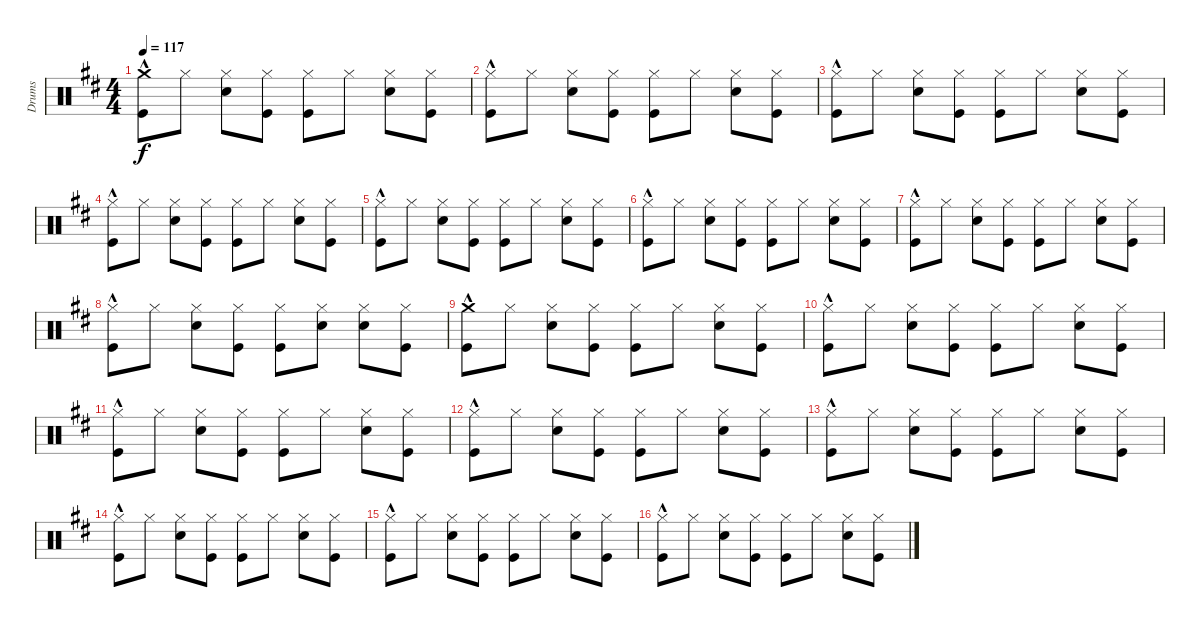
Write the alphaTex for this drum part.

\track ("Drums" "Drums") {instrument percussion}
\staff {score}
\articulation defaults
\ts (4 4)
\tempo 117
\clef neutral
\ks d
("Crash medium (hit)"{hac} "Kick (hit)").8{dy f} "Hi-Hat (closed)".8 ("Hi-Hat (closed)" "Snare (hit) 2").8 ("Hi-Hat (closed)" "Kick (hit)").8 ("Hi-Hat (closed)" "Kick (hit)").8 "Hi-Hat (closed)".8 ("Hi-Hat (closed)" "Snare (hit) 2").8 ("Hi-Hat (closed)" "Kick (hit)").8 |
("Hi-Hat (closed)"{hac} "Kick (hit)").8 "Hi-Hat (closed)".8 ("Hi-Hat (closed)" "Snare (hit) 2").8 ("Hi-Hat (closed)" "Kick (hit)").8 ("Hi-Hat (closed)" "Kick (hit)").8 "Hi-Hat (closed)".8 ("Hi-Hat (closed)" "Snare (hit) 2").8 ("Hi-Hat (closed)" "Kick (hit)").8 |
("Hi-Hat (closed)"{hac} "Kick (hit)").8 "Hi-Hat (closed)".8 ("Hi-Hat (closed)" "Snare (hit) 2").8 ("Hi-Hat (closed)" "Kick (hit)").8 ("Hi-Hat (closed)" "Kick (hit)").8 "Hi-Hat (closed)".8 ("Hi-Hat (closed)" "Snare (hit) 2").8 ("Hi-Hat (closed)" "Kick (hit)").8 |
("Hi-Hat (closed)"{hac} "Kick (hit)").8 "Hi-Hat (closed)".8 ("Hi-Hat (closed)" "Snare (hit) 2").8 ("Hi-Hat (closed)" "Kick (hit)").8 ("Hi-Hat (closed)" "Kick (hit)").8 "Hi-Hat (closed)".8 ("Hi-Hat (closed)" "Snare (hit) 2").8 ("Hi-Hat (closed)" "Kick (hit)").8 |
("Hi-Hat (closed)"{hac} "Kick (hit)").8 "Hi-Hat (closed)".8 ("Hi-Hat (closed)" "Snare (hit) 2").8 ("Hi-Hat (closed)" "Kick (hit)").8 ("Hi-Hat (closed)" "Kick (hit)").8 "Hi-Hat (closed)".8 ("Hi-Hat (closed)" "Snare (hit) 2").8 ("Hi-Hat (closed)" "Kick (hit)").8 |
("Hi-Hat (closed)"{hac} "Kick (hit)").8 "Hi-Hat (closed)".8 ("Hi-Hat (closed)" "Snare (hit) 2").8 ("Hi-Hat (closed)" "Kick (hit)").8 ("Hi-Hat (closed)" "Kick (hit)").8 "Hi-Hat (closed)".8 ("Hi-Hat (closed)" "Snare (hit) 2").8 ("Hi-Hat (closed)" "Kick (hit)").8 |
("Hi-Hat (closed)"{hac} "Kick (hit)").8 "Hi-Hat (closed)".8 ("Hi-Hat (closed)" "Snare (hit) 2").8 ("Hi-Hat (closed)" "Kick (hit)").8 ("Hi-Hat (closed)" "Kick (hit)").8 "Hi-Hat (closed)".8 ("Hi-Hat (closed)" "Snare (hit) 2").8 ("Hi-Hat (closed)" "Kick (hit)").8 |
("Hi-Hat (closed)"{hac} "Kick (hit)").8 "Hi-Hat (closed)".8 ("Hi-Hat (closed)" "Snare (hit) 2").8 ("Hi-Hat (closed)" "Kick (hit)").8 ("Hi-Hat (closed)" "Kick (hit)").8 ("Hi-Hat (closed)" "Snare (hit) 2").8 ("Hi-Hat (closed)" "Snare (hit) 2").8 ("Hi-Hat (closed)" "Kick (hit)").8 |
("Crash medium (hit)"{hac} "Kick (hit)").8 "Hi-Hat (closed)".8 ("Hi-Hat (closed)" "Snare (hit) 2").8 ("Hi-Hat (closed)" "Kick (hit)").8 ("Hi-Hat (closed)" "Kick (hit)").8 "Hi-Hat (closed)".8 ("Hi-Hat (closed)" "Snare (hit) 2").8 ("Hi-Hat (closed)" "Kick (hit)").8 |
("Hi-Hat (closed)"{hac} "Kick (hit)").8 "Hi-Hat (closed)".8 ("Hi-Hat (closed)" "Snare (hit) 2").8 ("Hi-Hat (closed)" "Kick (hit)").8 ("Hi-Hat (closed)" "Kick (hit)").8 "Hi-Hat (closed)".8 ("Hi-Hat (closed)" "Snare (hit) 2").8 ("Hi-Hat (closed)" "Kick (hit)").8 |
("Hi-Hat (closed)"{hac} "Kick (hit)").8 "Hi-Hat (closed)".8 ("Hi-Hat (closed)" "Snare (hit) 2").8 ("Hi-Hat (closed)" "Kick (hit)").8 ("Hi-Hat (closed)" "Kick (hit)").8 "Hi-Hat (closed)".8 ("Hi-Hat (closed)" "Snare (hit) 2").8 ("Hi-Hat (closed)" "Kick (hit)").8 |
("Hi-Hat (closed)"{hac} "Kick (hit)").8 "Hi-Hat (closed)".8 ("Hi-Hat (closed)" "Snare (hit) 2").8 ("Hi-Hat (closed)" "Kick (hit)").8 ("Hi-Hat (closed)" "Kick (hit)").8 "Hi-Hat (closed)".8 ("Hi-Hat (closed)" "Snare (hit) 2").8 ("Hi-Hat (closed)" "Kick (hit)").8 |
("Hi-Hat (closed)"{hac} "Kick (hit)").8 "Hi-Hat (closed)".8 ("Hi-Hat (closed)" "Snare (hit) 2").8 ("Hi-Hat (closed)" "Kick (hit)").8 ("Hi-Hat (closed)" "Kick (hit)").8 "Hi-Hat (closed)".8 ("Hi-Hat (closed)" "Snare (hit) 2").8 ("Hi-Hat (closed)" "Kick (hit)").8 |
("Hi-Hat (closed)"{hac} "Kick (hit)").8 "Hi-Hat (closed)".8 ("Hi-Hat (closed)" "Snare (hit) 2").8 ("Hi-Hat (closed)" "Kick (hit)").8 ("Hi-Hat (closed)" "Kick (hit)").8 "Hi-Hat (closed)".8 ("Hi-Hat (closed)" "Snare (hit) 2").8 ("Hi-Hat (closed)" "Kick (hit)").8 |
("Hi-Hat (closed)"{hac} "Kick (hit)").8 "Hi-Hat (closed)".8 ("Hi-Hat (closed)" "Snare (hit) 2").8 ("Hi-Hat (closed)" "Kick (hit)").8 ("Hi-Hat (closed)" "Kick (hit)").8 "Hi-Hat (closed)".8 ("Hi-Hat (closed)" "Snare (hit) 2").8 ("Hi-Hat (closed)" "Kick (hit)").8 |
("Hi-Hat (closed)"{hac} "Kick (hit)").8 "Hi-Hat (closed)".8 ("Hi-Hat (closed)" "Snare (hit) 2").8 ("Hi-Hat (closed)" "Kick (hit)").8 ("Hi-Hat (closed)" "Kick (hit)").8 "Hi-Hat (closed)".8 ("Hi-Hat (closed)" "Snare (hit) 2").8 ("Hi-Hat (closed)" "Kick (hit)").8
